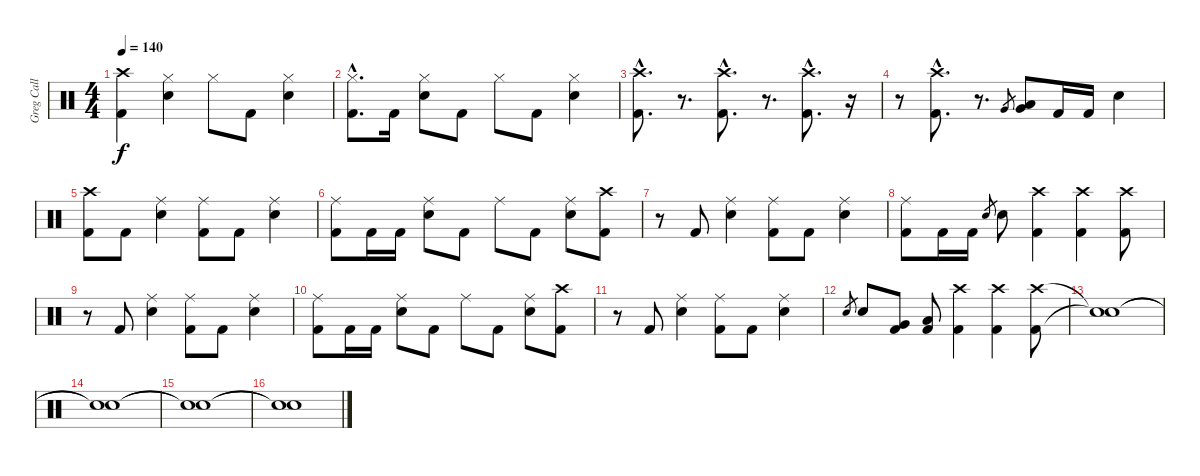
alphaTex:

\track ("Greg Call (Drums)" "Greg Call ") {instrument percussion}
\staff {score}
\articulation defaults
\ts (4 4)
\tempo 140
\clef neutral
\ks c
("Kick (hit) 2" "Crash high (hit)").4{dy f} ("Hi-Hat (closed)" "Snare (hit) 2").4 "Hi-Hat (closed)".8 "Kick (hit) 2".8 ("Hi-Hat (closed)" "Snare (hit) 2").4 |
("Hi-Hat (closed)"{hac} "Kick (hit) 2"{hac}).8{d} "Kick (hit) 2".16 ("Hi-Hat (closed)" "Snare (hit) 2").8 "Kick (hit) 2".8 "Hi-Hat (closed)".8 "Kick (hit) 2".8 ("Hi-Hat (closed)" "Snare (hit) 2").4 |
("Crash high (hit)"{hac} "Kick (hit) 2"{hac}).8{d} r.8{d volume 0} ("Crash high (hit)"{hac} "Kick (hit) 2"{hac}).8{d volume 16} r.8{d volume 0} ("Crash high (hit)"{hac} "Kick (hit) 2"{hac}).8{d volume 16} r.16{volume 0} |
r.8 ("Crash high (hit)"{hac} "Kick (hit) 2"{hac}).8{d volume 16} r.8{d} "Very Low Tom (hit)".8{gr} ("Low Tom (hit)" "Very Low Tom (hit)").8 "Kick (hit) 2".16 "Kick (hit) 2".16 "Snare (hit) 2".4 |
("Crash high (hit)" "Kick (hit) 2").8 "Kick (hit) 2".8 ("Ride (middle)" "Snare (hit) 2").4 ("Ride (middle)" "Kick (hit) 2").8 "Kick (hit) 2".8 ("Ride (middle)" "Snare (hit) 2").4 |
("Ride (middle)" "Kick (hit) 2").8 "Kick (hit) 2".16 "Kick (hit) 2".16 ("Ride (middle)" "Snare (hit) 2").8 "Kick (hit) 2".8 "Ride (middle)".8 "Kick (hit) 2".8 ("Ride (middle)" "Snare (hit) 2").8 ("Crash high (hit)" "Kick (hit) 2").8 |
r.8 "Kick (hit) 2".8 ("Ride (middle)" "Snare (hit) 2").4 ("Ride (middle)" "Kick (hit) 2").8 "Kick (hit) 2".8 ("Ride (middle)" "Snare (hit) 2").4 |
("Ride (middle)" "Kick (hit) 2").8 "Kick (hit) 2".16 "Kick (hit) 2".16 "Snare (hit) 2".8{gr} "Snare (hit) 2".8 ("Crash high (hit)" "Kick (hit) 2").4 ("Crash high (hit)" "Kick (hit) 2").4 ("Crash high (hit)" "Kick (hit) 2").8 |
r.8 "Kick (hit) 2".8 ("Ride (middle)" "Snare (hit) 2").4 ("Ride (middle)" "Kick (hit) 2").8 "Kick (hit) 2".8 ("Ride (middle)" "Snare (hit) 2").4 |
("Ride (middle)" "Kick (hit) 2").8 "Kick (hit) 2".16 "Kick (hit) 2".16 ("Ride (middle)" "Snare (hit) 2").8 "Kick (hit) 2".8 "Ride (middle)".8 "Kick (hit) 2".8 ("Ride (middle)" "Snare (hit) 2").8 ("Crash high (hit)" "Kick (hit) 2").8 |
r.8 "Kick (hit) 2".8 ("Ride (middle)" "Snare (hit) 2").4 ("Ride (middle)" "Kick (hit) 2").8 "Kick (hit) 2".8 ("Ride (middle)" "Snare (hit) 2").4 |
"Snare (hit) 2".8{gr} "Snare (hit) 2".8 ("Very Low Tom (hit)" "Kick (hit) 2").8 ("Low Floor Tom (hit)" "Kick (hit) 2").8 ("Crash high (hit)" "Kick (hit) 2").4 ("Crash high (hit)" "Kick (hit) 2").4 ("Crash high (hit)" "Kick (hit) 2").8 |
("Snare (hit)"{t} "Snare (hit)"{t}).1 |
("Snare (hit)"{t} "Snare (hit)"{t}).1 |
("Snare (hit)"{t} "Snare (hit)"{t}).1 |
("Snare (hit)"{t} "Snare (hit)"{t}).1
